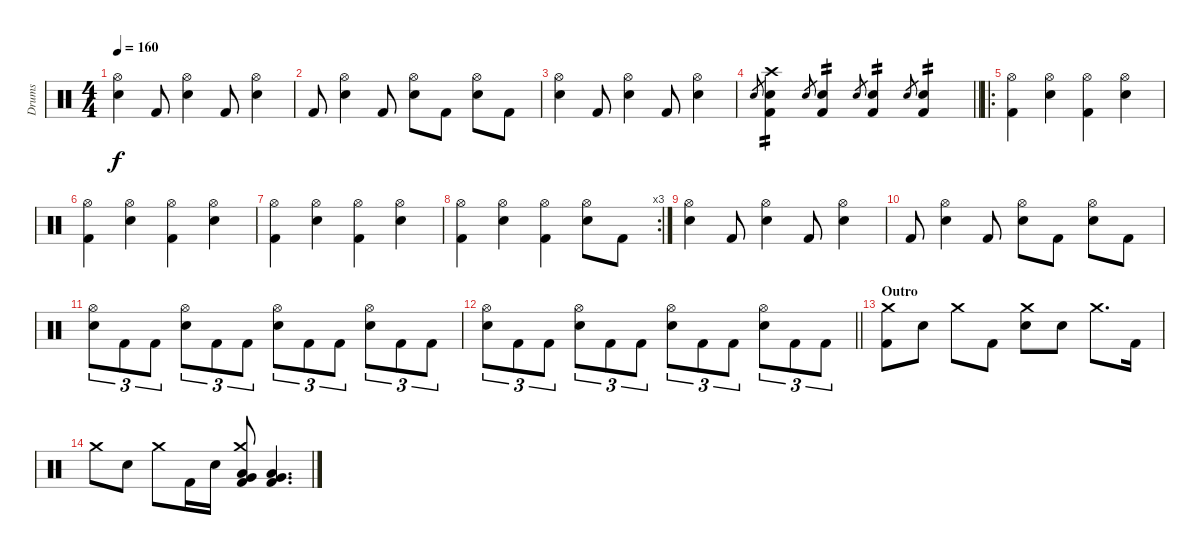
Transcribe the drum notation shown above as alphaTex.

\track ("Drums" "Drums") {instrument percussion}
\staff {score}
\articulation defaults
\ts (4 4)
\tempo 160
\clef neutral
\ks c
("Hi-Hat (open)" "Electric Snare (hit)").4{dy f} "Kick (hit) 2".8 ("Hi-Hat (open)" "Electric Snare (hit)").4 "Kick (hit) 2".8 ("Hi-Hat (open)" "Electric Snare (hit)").4 |
"Kick (hit) 2".8 ("Hi-Hat (open)" "Electric Snare (hit)").4 "Kick (hit) 2".8 ("Hi-Hat (open)" "Electric Snare (hit)").8 "Kick (hit) 2".8 ("Hi-Hat (open)" "Electric Snare (hit)").8 "Kick (hit) 2".8 |
("Hi-Hat (open)" "Electric Snare (hit)").4 "Kick (hit) 2".8 ("Hi-Hat (open)" "Electric Snare (hit)").4 "Kick (hit) 2".8 ("Hi-Hat (open)" "Electric Snare (hit)").4 |
\barLineRight lightlight "Electric Snare (hit)".8{gr}
("Crash high (hit)" "Electric Snare (hit)" "Kick (hit) 2").4{tp 2} "Electric Snare (hit)".8{gr} ("Electric Snare (hit)" "Kick (hit) 2").4{tp 2} "Electric Snare (hit)".8{gr} ("Electric Snare (hit)" "Kick (hit) 2").4{tp 2} "Electric Snare (hit)".8{gr} ("Electric Snare (hit)" "Kick (hit) 2").4{tp 2} |
\ro
("Hi-Hat (open)" "Kick (hit) 2").4 ("Hi-Hat (open)" "Electric Snare (hit)").4 ("Hi-Hat (open)" "Kick (hit) 2").4 ("Hi-Hat (open)" "Electric Snare (hit)").4 |
("Hi-Hat (open)" "Kick (hit) 2").4 ("Hi-Hat (open)" "Electric Snare (hit)").4 ("Hi-Hat (open)" "Kick (hit) 2").4 ("Hi-Hat (open)" "Electric Snare (hit)").4 |
("Hi-Hat (open)" "Kick (hit) 2").4 ("Hi-Hat (open)" "Electric Snare (hit)").4 ("Hi-Hat (open)" "Kick (hit) 2").4 ("Hi-Hat (open)" "Electric Snare (hit)").4 |
\rc 3
("Hi-Hat (open)" "Kick (hit) 2").4 ("Hi-Hat (open)" "Electric Snare (hit)").4 ("Hi-Hat (open)" "Kick (hit) 2").4 ("Hi-Hat (open)" "Electric Snare (hit)").8 "Kick (hit) 2".8 |
("Hi-Hat (open)" "Electric Snare (hit)").4 "Kick (hit) 2".8 ("Hi-Hat (open)" "Electric Snare (hit)").4 "Kick (hit) 2".8 ("Hi-Hat (open)" "Electric Snare (hit)").4 |
"Kick (hit) 2".8 ("Hi-Hat (open)" "Electric Snare (hit)").4 "Kick (hit) 2".8 ("Hi-Hat (open)" "Electric Snare (hit)").8 "Kick (hit) 2".8 ("Hi-Hat (open)" "Electric Snare (hit)").8 "Kick (hit) 2".8 |
("Hi-Hat (open)" "Electric Snare (hit)").8{tu (3 2)} "Kick (hit) 2".8{tu (3 2)} "Kick (hit) 2".8{tu (3 2)} ("Hi-Hat (open)" "Electric Snare (hit)").8{tu (3 2)} "Kick (hit) 2".8{tu (3 2)} "Kick (hit) 2".8{tu (3 2)} ("Hi-Hat (open)" "Electric Snare (hit)").8{tu (3 2)} "Kick (hit) 2".8{tu (3 2)} "Kick (hit) 2".8{tu (3 2)} ("Hi-Hat (open)" "Electric Snare (hit)").8{tu (3 2)} "Kick (hit) 2".8{tu (3 2)} "Kick (hit) 2".8{tu (3 2)} |
\barLineRight lightlight
("Hi-Hat (open)" "Electric Snare (hit)").8{tu (3 2)} "Kick (hit) 2".8{tu (3 2)} "Kick (hit) 2".8{tu (3 2)} ("Hi-Hat (open)" "Electric Snare (hit)").8{tu (3 2)} "Kick (hit) 2".8{tu (3 2)} "Kick (hit) 2".8{tu (3 2)} ("Hi-Hat (open)" "Electric Snare (hit)").8{tu (3 2)} "Kick (hit) 2".8{tu (3 2)} "Kick (hit) 2".8{tu (3 2)} ("Hi-Hat (open)" "Electric Snare (hit)").8{tu (3 2)} "Kick (hit) 2".8{tu (3 2)} "Kick (hit) 2".8{tu (3 2)} |
\section ("" "Outro")
("Crash medium (hit)" "Kick (hit) 2").8 "Electric Snare (hit)".8 "Crash medium (hit)".8 "Kick (hit) 2".8 ("Crash medium (hit)" "Electric Snare (hit)").8 "Electric Snare (hit)".8 "Crash medium (hit)".8{d} "Kick (hit) 2".16 |
"Crash medium (hit)".8 "Electric Snare (hit)".8 "Crash medium (hit)".8 "Kick (hit) 2".16 "Electric Snare (hit)".16 ("Crash medium (hit)" "Low Floor Tom (hit)" "Very Low Tom (hit)" "Kick (hit) 2").8 ("Low Floor Tom (hit)" "Very Low Tom (hit)" "Kick (hit) 2").4{d}
